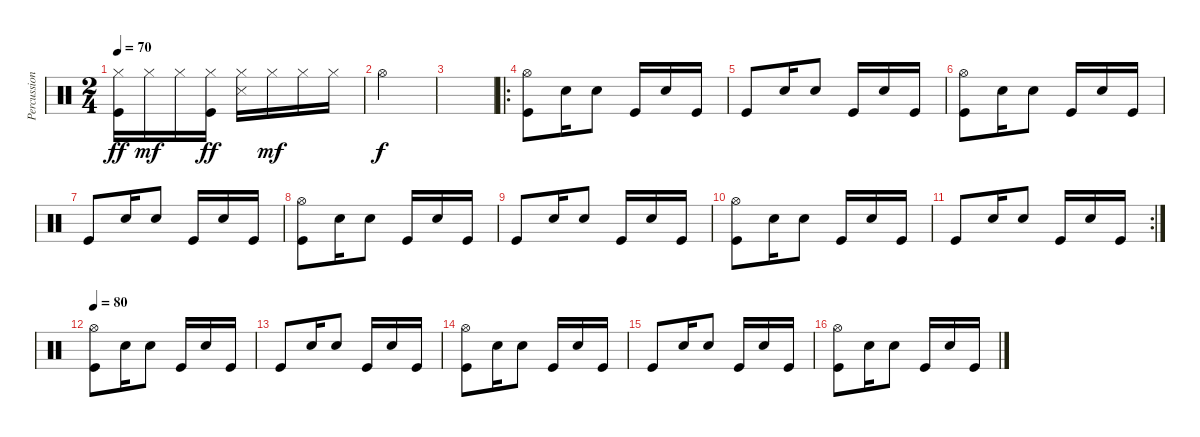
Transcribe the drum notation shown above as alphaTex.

\track ("Percussions" "Percussion") {instrument percussion}
\staff {score}
\articulation defaults
\ts (2 4)
\tempo 70
\clef neutral
\ks c
("Hi-Hat (closed)" "Kick (hit)").16{dy ff} "Hi-Hat (closed)".16{dy mf} "Hi-Hat (closed)".16 ("Hi-Hat (closed)" "Kick (hit)").16{dy ff} ("Hi-Hat (closed)" "Snare (side stick) 3").16 "Hi-Hat (closed)".16{dy mf} "Hi-Hat (closed)".16 "Hi-Hat (closed)".16 |
"Hi-Hat (open)".2{dy f} |
|
\ro
("Hi-Hat (open)" "Kick (hit)").8 "Electric Snare (hit)".16 "Electric Snare (hit)".8 "Kick (hit)".16 "Electric Snare (hit)".16 "Kick (hit)".16 |
"Kick (hit)".8 "Electric Snare (hit)".16 "Electric Snare (hit)".8 "Kick (hit)".16 "Electric Snare (hit)".16 "Kick (hit)".16 |
("Hi-Hat (open)" "Kick (hit)").8 "Electric Snare (hit)".16 "Electric Snare (hit)".8 "Kick (hit)".16 "Electric Snare (hit)".16 "Kick (hit)".16 |
"Kick (hit)".8 "Electric Snare (hit)".16 "Electric Snare (hit)".8 "Kick (hit)".16 "Electric Snare (hit)".16 "Kick (hit)".16 |
("Hi-Hat (open)" "Kick (hit)").8 "Electric Snare (hit)".16 "Electric Snare (hit)".8 "Kick (hit)".16 "Electric Snare (hit)".16 "Kick (hit)".16 |
"Kick (hit)".8 "Electric Snare (hit)".16 "Electric Snare (hit)".8 "Kick (hit)".16 "Electric Snare (hit)".16 "Kick (hit)".16 |
("Hi-Hat (open)" "Kick (hit)").8 "Electric Snare (hit)".16 "Electric Snare (hit)".8 "Kick (hit)".16 "Electric Snare (hit)".16 "Kick (hit)".16 |
\rc 2 "Kick (hit)".8 "Electric Snare (hit)".16 "Electric Snare (hit)".8 "Kick (hit)".16 "Electric Snare (hit)".16 "Kick (hit)".16
|
\tempo 80
("Hi-Hat (open)" "Kick (hit)").8 "Electric Snare (hit)".16 "Electric Snare (hit)".8 "Kick (hit)".16 "Electric Snare (hit)".16 "Kick (hit)".16 |
"Kick (hit)".8 "Electric Snare (hit)".16 "Electric Snare (hit)".8 "Kick (hit)".16 "Electric Snare (hit)".16 "Kick (hit)".16 |
("Hi-Hat (open)" "Kick (hit)").8 "Electric Snare (hit)".16 "Electric Snare (hit)".8 "Kick (hit)".16 "Electric Snare (hit)".16 "Kick (hit)".16 |
"Kick (hit)".8 "Electric Snare (hit)".16 "Electric Snare (hit)".8 "Kick (hit)".16 "Electric Snare (hit)".16 "Kick (hit)".16 |
("Hi-Hat (open)" "Kick (hit)").8 "Electric Snare (hit)".16 "Electric Snare (hit)".8 "Kick (hit)".16 "Electric Snare (hit)".16 "Kick (hit)".16
